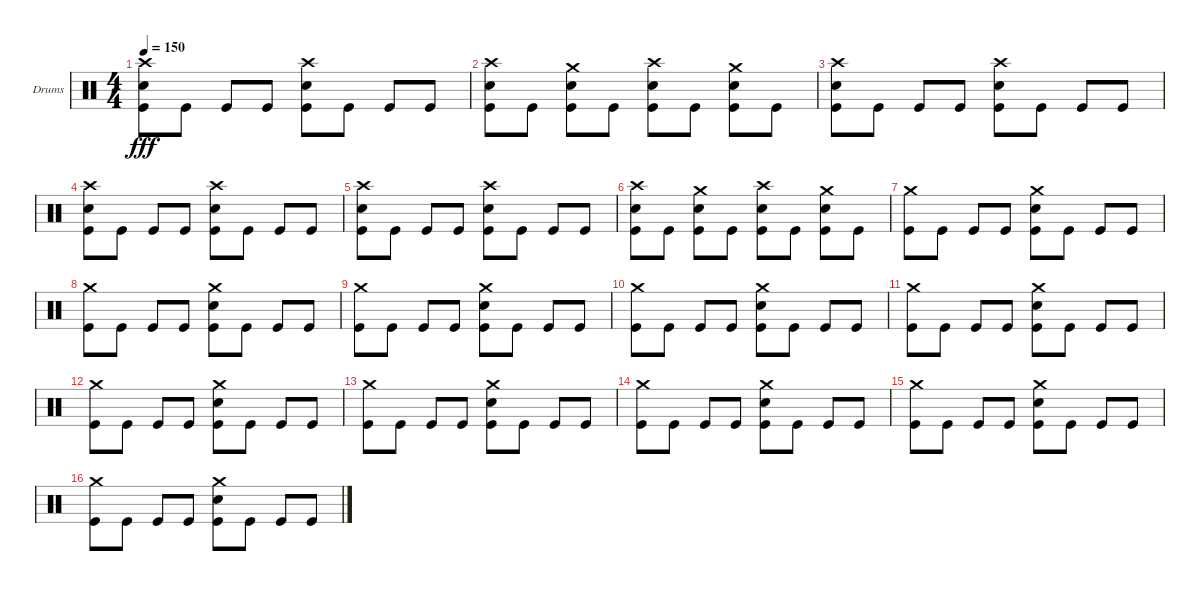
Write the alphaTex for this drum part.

\bracketExtendMode groupsimilarinstruments
\firstSystemTrackNameOrientation horizontal
\otherSystemsTrackNameOrientation horizontal
\track ("Corey" "Drums") {instrument percussion}
\staff {score}
\articulation defaults
\ts (4 4)
\tempo 150
\clef neutral
\ks c
("Kick (hit)" "Snare (hit) 2" "Crash high (hit)").8{dy fff} "Kick (hit)".8 "Kick (hit)".8 "Kick (hit)".8 ("Kick (hit)" "Snare (hit) 2" "Crash high (hit)").8 "Kick (hit)".8 "Kick (hit)".8 "Kick (hit)".8 |
("Kick (hit)" "Snare (hit) 2" "Crash high (hit)").8 "Kick (hit)".8 ("Kick (hit)" "Snare (hit) 2" "Crash medium (hit)").8 "Kick (hit)".8 ("Kick (hit)" "Snare (hit) 2" "Crash high (hit)").8 "Kick (hit)".8 ("Kick (hit)" "Snare (hit) 2" "Crash medium (hit)").8 "Kick (hit)".8 |
("Kick (hit)" "Snare (hit) 2" "Crash high (hit)").8 "Kick (hit)".8 "Kick (hit)".8 "Kick (hit)".8 ("Kick (hit)" "Snare (hit) 2" "Crash high (hit)").8 "Kick (hit)".8 "Kick (hit)".8 "Kick (hit)".8 |
("Kick (hit)" "Snare (hit) 2" "Crash high (hit)").8 "Kick (hit)".8 "Kick (hit)".8 "Kick (hit)".8 ("Kick (hit)" "Snare (hit) 2" "Crash high (hit)").8 "Kick (hit)".8 "Kick (hit)".8 "Kick (hit)".8 |
("Kick (hit)" "Snare (hit) 2" "Crash high (hit)").8 "Kick (hit)".8 "Kick (hit)".8 "Kick (hit)".8 ("Kick (hit)" "Snare (hit) 2" "Crash high (hit)").8 "Kick (hit)".8 "Kick (hit)".8 "Kick (hit)".8 |
("Kick (hit)" "Snare (hit) 2" "Crash high (hit)").8 "Kick (hit)".8 ("Kick (hit)" "Snare (hit) 2" "Crash medium (hit)").8 "Kick (hit)".8 ("Kick (hit)" "Snare (hit) 2" "Crash high (hit)").8 "Kick (hit)".8 ("Kick (hit)" "Snare (hit) 2" "Crash medium (hit)").8 "Kick (hit)".8 |
("Kick (hit)" "Crash medium (hit)").8 "Kick (hit)".8 "Kick (hit)".8 "Kick (hit)".8 ("Kick (hit)" "Snare (hit) 2" "Crash medium (hit)").8 "Kick (hit)".8 "Kick (hit)".8 "Kick (hit)".8 |
("Kick (hit)" "Crash medium (hit)").8 "Kick (hit)".8 "Kick (hit)".8 "Kick (hit)".8 ("Kick (hit)" "Snare (hit) 2" "Crash medium (hit)").8 "Kick (hit)".8 "Kick (hit)".8 "Kick (hit)".8 |
("Kick (hit)" "Crash medium (hit)").8 "Kick (hit)".8 "Kick (hit)".8 "Kick (hit)".8 ("Kick (hit)" "Snare (hit) 2" "Crash medium (hit)").8 "Kick (hit)".8 "Kick (hit)".8 "Kick (hit)".8 |
("Kick (hit)" "Crash medium (hit)").8 "Kick (hit)".8 "Kick (hit)".8 "Kick (hit)".8 ("Kick (hit)" "Snare (hit) 2" "Crash medium (hit)").8 "Kick (hit)".8 "Kick (hit)".8 "Kick (hit)".8 |
("Kick (hit)" "Crash medium (hit)").8 "Kick (hit)".8 "Kick (hit)".8 "Kick (hit)".8 ("Kick (hit)" "Snare (hit) 2" "Crash medium (hit)").8 "Kick (hit)".8 "Kick (hit)".8 "Kick (hit)".8 |
("Kick (hit)" "Crash medium (hit)").8 "Kick (hit)".8 "Kick (hit)".8 "Kick (hit)".8 ("Kick (hit)" "Snare (hit) 2" "Crash medium (hit)").8 "Kick (hit)".8 "Kick (hit)".8 "Kick (hit)".8 |
("Kick (hit)" "Crash medium (hit)").8 "Kick (hit)".8 "Kick (hit)".8 "Kick (hit)".8 ("Kick (hit)" "Snare (hit) 2" "Crash medium (hit)").8 "Kick (hit)".8 "Kick (hit)".8 "Kick (hit)".8 |
("Kick (hit)" "Crash medium (hit)").8 "Kick (hit)".8 "Kick (hit)".8 "Kick (hit)".8 ("Kick (hit)" "Snare (hit) 2" "Crash medium (hit)").8 "Kick (hit)".8 "Kick (hit)".8 "Kick (hit)".8 |
("Kick (hit)" "Crash medium (hit)").8 "Kick (hit)".8 "Kick (hit)".8 "Kick (hit)".8 ("Kick (hit)" "Snare (hit) 2" "Crash medium (hit)").8 "Kick (hit)".8 "Kick (hit)".8 "Kick (hit)".8 |
("Kick (hit)" "Crash medium (hit)").8 "Kick (hit)".8 "Kick (hit)".8 "Kick (hit)".8 ("Kick (hit)" "Snare (hit) 2" "Crash medium (hit)").8 "Kick (hit)".8 "Kick (hit)".8 "Kick (hit)".8
